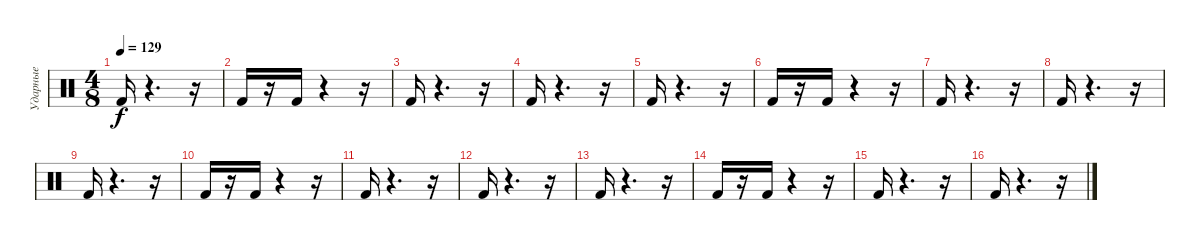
\track ("Ударные" "Ударные") {instrument percussion}
\staff {score}
\articulation defaults
\ts (4 8)
\tempo 129
\clef neutral
\ks c "Kick (hit) 2".16{dy f}
r.4{d} r.16 |
"Kick (hit) 2".16 r.16 "Kick (hit) 2".16 r.4 r.16 |
"Kick (hit) 2".16 r.4{d} r.16 |
"Kick (hit) 2".16 r.4{d} r.16 |
"Kick (hit) 2".16 r.4{d} r.16 |
"Kick (hit) 2".16 r.16 "Kick (hit) 2".16 r.4 r.16 |
"Kick (hit) 2".16 r.4{d} r.16 |
"Kick (hit) 2".16 r.4{d} r.16 |
"Kick (hit) 2".16 r.4{d} r.16 |
"Kick (hit) 2".16 r.16 "Kick (hit) 2".16 r.4 r.16 |
"Kick (hit) 2".16 r.4{d} r.16 |
"Kick (hit) 2".16 r.4{d} r.16 |
"Kick (hit) 2".16 r.4{d} r.16 |
"Kick (hit) 2".16 r.16 "Kick (hit) 2".16 r.4 r.16 |
"Kick (hit) 2".16 r.4{d} r.16 |
"Kick (hit) 2".16 r.4{d} r.16
